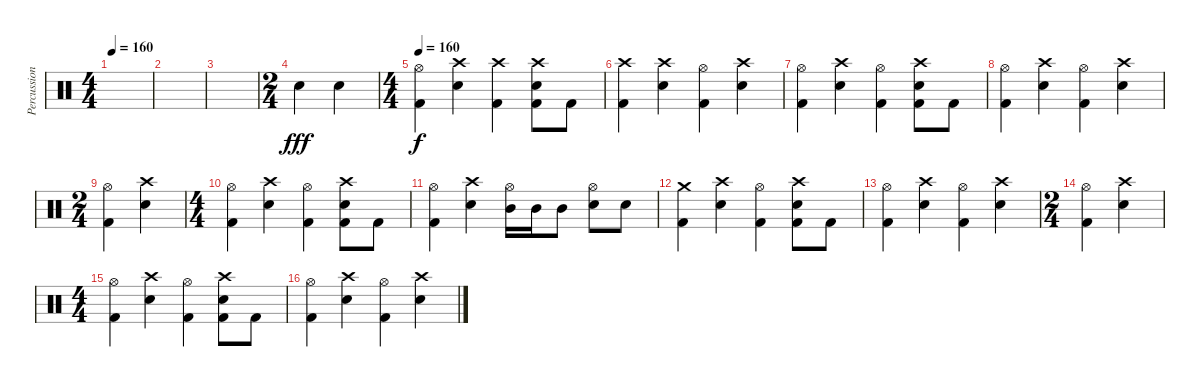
\track ("Percussion" "Percussion") {instrument percussion}
\staff {score}
\articulation defaults
\ts (4 4)
\tempo 160
\clef neutral
\ks c
|
|
|
\ts (2 4)
"Electric Snare (hit)".4{dy fff} "Electric Snare (hit)".4 |
\ts (4 4)
\tempo 160
("Hi-Hat (open)" "Kick (hit) 2").4{dy f} ("Crash high (hit)" "Electric Snare (hit)").4 ("Crash high (hit)" "Kick (hit) 2").4 ("Crash high (hit)" "Electric Snare (hit)" "Kick (hit) 2").8 "Kick (hit) 2".8 |
("Crash high (hit)" "Kick (hit) 2").4 ("Crash high (hit)" "Electric Snare (hit)").4 ("Hi-Hat (open)" "Kick (hit) 2").4 ("Crash high (hit)" "Electric Snare (hit)").4 |
("Hi-Hat (open)" "Kick (hit) 2").4 ("Crash high (hit)" "Electric Snare (hit)").4 ("Hi-Hat (open)" "Kick (hit) 2").4 ("Crash high (hit)" "Electric Snare (hit)" "Kick (hit) 2").8 "Kick (hit) 2".8 |
("Hi-Hat (open)" "Kick (hit) 2").4 ("Crash high (hit)" "Electric Snare (hit)").4 ("Hi-Hat (open)" "Kick (hit) 2").4 ("Crash high (hit)" "Electric Snare (hit)").4 |
\ts (2 4)
("Hi-Hat (open)" "Kick (hit) 2").4 ("Crash high (hit)" "Electric Snare (hit)").4 |
\ts (4 4)
("Hi-Hat (open)" "Kick (hit) 2").4 ("Crash high (hit)" "Electric Snare (hit)").4 ("Hi-Hat (open)" "Kick (hit) 2").4 ("Crash high (hit)" "Electric Snare (hit)" "Kick (hit) 2").8 "Kick (hit) 2".8 |
("Hi-Hat (open)" "Kick (hit) 2").4 ("Crash high (hit)" "Electric Snare (hit)").4 ("Hi-Hat (open)" "Mid Tom (hit)").16 "Mid Tom (hit)".16 "Mid Tom (hit)".8 ("Hi-Hat (open)" "Electric Snare (hit)").8 "Electric Snare (hit)".8 |
("Crash medium (hit)" "Kick (hit) 2").4 ("Crash high (hit)" "Electric Snare (hit)").4 ("Hi-Hat (open)" "Kick (hit) 2").4 ("Crash high (hit)" "Electric Snare (hit)" "Kick (hit) 2").8 "Kick (hit) 2".8 |
("Hi-Hat (open)" "Kick (hit) 2").4 ("Crash high (hit)" "Electric Snare (hit)").4 ("Hi-Hat (open)" "Kick (hit) 2").4 ("Crash high (hit)" "Electric Snare (hit)").4 |
\ts (2 4)
("Hi-Hat (open)" "Kick (hit) 2").4 ("Crash high (hit)" "Electric Snare (hit)").4 |
\ts (4 4)
("Hi-Hat (open)" "Kick (hit) 2").4 ("Crash high (hit)" "Electric Snare (hit)").4 ("Hi-Hat (open)" "Kick (hit) 2").4 ("Crash high (hit)" "Electric Snare (hit)" "Kick (hit) 2").8 "Kick (hit) 2".8 |
("Hi-Hat (open)" "Kick (hit) 2").4 ("Crash high (hit)" "Electric Snare (hit)").4 ("Hi-Hat (open)" "Kick (hit) 2").4 ("Crash high (hit)" "Electric Snare (hit)").4
